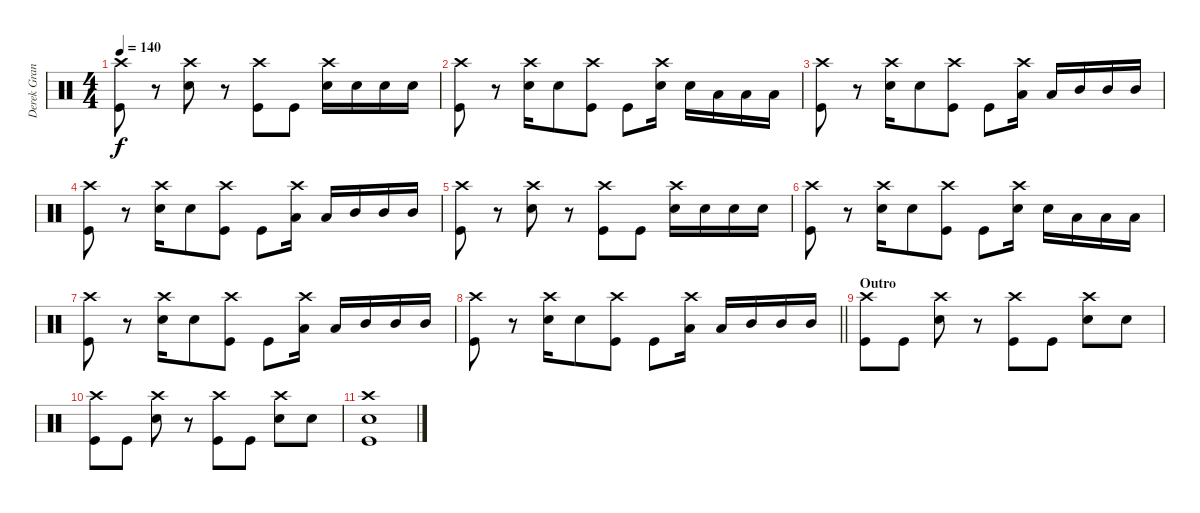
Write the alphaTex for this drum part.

\track ("Derek Grant" "Derek Gran") {instrument percussion}
\staff {score}
\articulation defaults
\ts (4 4)
\tempo 140
\clef neutral
\ks c
("Crash high (hit)" "Kick (hit)").8{dy f} r.8 ("Crash high (hit)" "Snare (hit) 2").8 r.8 ("Crash high (hit)" "Kick (hit)").8 "Kick (hit)".8 ("Crash high (hit)" "Snare (hit) 2").16 "Snare (hit) 2".16 "Snare (hit) 2".16 "Snare (hit) 2".16 |
("Crash high (hit)" "Kick (hit)").8 r.8 ("Crash high (hit)" "Snare (hit) 2").16 "Snare (hit) 2".8 ("Crash high (hit)" "Kick (hit)").8 "Kick (hit)".8 ("Crash high (hit)" "Snare (hit) 2").16 "Snare (hit) 2".16 "Low Tom (hit)".16 "Low Tom (hit)".16 "Low Tom (hit)".16 |
("Crash high (hit)" "Kick (hit)").8 r.8 ("Crash high (hit)" "Snare (hit) 2").16 "Snare (hit) 2".8 ("Crash high (hit)" "Kick (hit)").8 "Kick (hit)".8 ("Crash high (hit)" "Low Tom (hit)").16 "Low Tom (hit)".16 "Mid Tom (hit)".16 "Mid Tom (hit)".16 "Mid Tom (hit)".16 |
("Crash high (hit)" "Kick (hit)").8 r.8 ("Crash high (hit)" "Snare (hit) 2").16 "Snare (hit) 2".8 ("Crash high (hit)" "Kick (hit)").8 "Kick (hit)".8 ("Crash high (hit)" "Low Tom (hit)").16 "Low Tom (hit)".16 "Mid Tom (hit)".16 "Mid Tom (hit)".16 "Mid Tom (hit)".16 |
("Crash high (hit)" "Kick (hit)").8 r.8 ("Crash high (hit)" "Snare (hit) 2").8 r.8 ("Crash high (hit)" "Kick (hit)").8 "Kick (hit)".8 ("Crash high (hit)" "Snare (hit) 2").16 "Snare (hit) 2".16 "Snare (hit) 2".16 "Snare (hit) 2".16 |
("Crash high (hit)" "Kick (hit)").8 r.8 ("Crash high (hit)" "Snare (hit) 2").16 "Snare (hit) 2".8 ("Crash high (hit)" "Kick (hit)").8 "Kick (hit)".8 ("Crash high (hit)" "Snare (hit) 2").16 "Snare (hit) 2".16 "Low Tom (hit)".16 "Low Tom (hit)".16 "Low Tom (hit)".16 |
("Crash high (hit)" "Kick (hit)").8 r.8 ("Crash high (hit)" "Snare (hit) 2").16 "Snare (hit) 2".8 ("Crash high (hit)" "Kick (hit)").8 "Kick (hit)".8 ("Crash high (hit)" "Low Tom (hit)").16 "Low Tom (hit)".16 "Mid Tom (hit)".16 "Mid Tom (hit)".16 "Mid Tom (hit)".16 |
\barLineRight lightlight
("Crash high (hit)" "Kick (hit)").8 r.8 ("Crash high (hit)" "Snare (hit) 2").16 "Snare (hit) 2".8 ("Crash high (hit)" "Kick (hit)").8 "Kick (hit)".8 ("Crash high (hit)" "Low Tom (hit)").16 "Low Tom (hit)".16 "Mid Tom (hit)".16 "Mid Tom (hit)".16 "Mid Tom (hit)".16 |
\section ("" "Outro")
("Crash high (hit)" "Kick (hit)").8 "Kick (hit)".8 ("Crash high (hit)" "Snare (hit) 2").8 r.8 ("Crash high (hit)" "Kick (hit)").8 "Kick (hit)".8 ("Crash high (hit)" "Snare (hit) 2").8 "Snare (hit) 2".8 |
("Crash high (hit)" "Kick (hit)").8 "Kick (hit)".8 ("Crash high (hit)" "Snare (hit) 2").8 r.8 ("Crash high (hit)" "Kick (hit)").8 "Kick (hit)".8 ("Crash high (hit)" "Snare (hit) 2").8 "Snare (hit) 2".8 |
("Crash high (hit)" "Snare (hit) 2" "Kick (hit)").1
